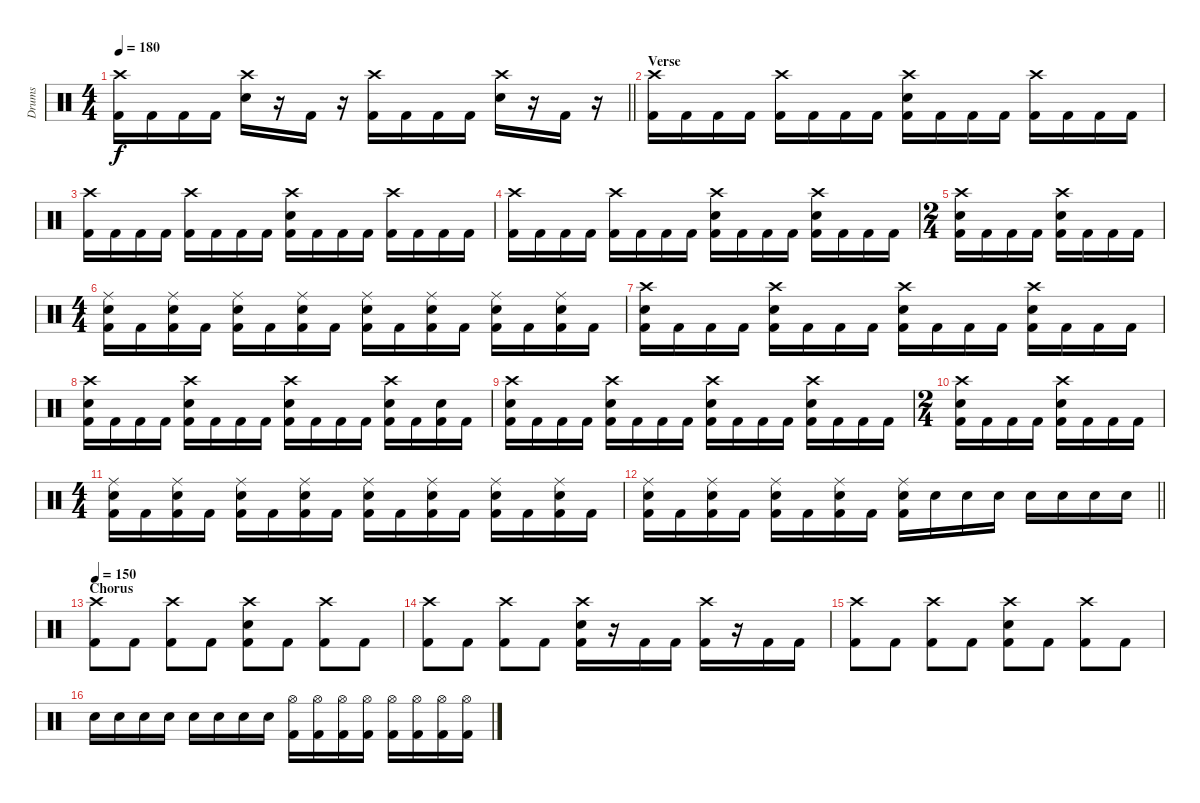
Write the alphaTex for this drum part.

\track ("Drums" "Drums") {instrument percussion}
\staff {score}
\articulation defaults
\ts (4 4)
\tempo 180
\clef neutral
\barLineRight lightlight
\ks c
("Crash high (hit)" "Kick (hit) 2").16{dy f} "Kick (hit) 2".16 "Kick (hit) 2".16 "Kick (hit) 2".16 ("Crash high (hit)" "Electric Snare (hit)").16 r.16 "Kick (hit) 2".16 r.16 ("Crash high (hit)" "Kick (hit) 2").16 "Kick (hit) 2".16 "Kick (hit) 2".16 "Kick (hit) 2".16 ("Crash high (hit)" "Electric Snare (hit)").16 r.16 "Kick (hit) 2".16 r.16 |
\section ("" "Verse")
("Crash high (hit)" "Kick (hit) 2").16 "Kick (hit) 2".16 "Kick (hit) 2".16 "Kick (hit) 2".16 ("Crash high (hit)" "Kick (hit) 2").16 "Kick (hit) 2".16 "Kick (hit) 2".16 "Kick (hit) 2".16 ("Crash high (hit)" "Electric Snare (hit)" "Kick (hit) 2").16 "Kick (hit) 2".16 "Kick (hit) 2".16 "Kick (hit) 2".16 ("Crash high (hit)" "Kick (hit) 2").16 "Kick (hit) 2".16 "Kick (hit) 2".16 "Kick (hit) 2".16 |
("Crash high (hit)" "Kick (hit) 2").16 "Kick (hit) 2".16 "Kick (hit) 2".16 "Kick (hit) 2".16 ("Crash high (hit)" "Kick (hit) 2").16 "Kick (hit) 2".16 "Kick (hit) 2".16 "Kick (hit) 2".16 ("Crash high (hit)" "Electric Snare (hit)" "Kick (hit) 2").16 "Kick (hit) 2".16 "Kick (hit) 2".16 "Kick (hit) 2".16 ("Crash high (hit)" "Kick (hit) 2").16 "Kick (hit) 2".16 "Kick (hit) 2".16 "Kick (hit) 2".16 |
("Crash high (hit)" "Kick (hit) 2").16 "Kick (hit) 2".16 "Kick (hit) 2".16 "Kick (hit) 2".16 ("Crash high (hit)" "Kick (hit) 2").16 "Kick (hit) 2".16 "Kick (hit) 2".16 "Kick (hit) 2".16 ("Crash high (hit)" "Electric Snare (hit)" "Kick (hit) 2").16 "Kick (hit) 2".16 "Kick (hit) 2".16 "Kick (hit) 2".16 ("Crash high (hit)" "Electric Snare (hit)" "Kick (hit) 2").16 "Kick (hit) 2".16 "Kick (hit) 2".16 "Kick (hit) 2".16 |
\ts (2 4)
("Crash high (hit)" "Electric Snare (hit)" "Kick (hit) 2").16 "Kick (hit) 2".16 "Kick (hit) 2".16 "Kick (hit) 2".16 ("Crash high (hit)" "Electric Snare (hit)" "Kick (hit) 2").16 "Kick (hit) 2".16 "Kick (hit) 2".16 "Kick (hit) 2".16 |
\ts (4 4)
("Ride (middle)" "Electric Snare (hit)" "Kick (hit) 2").16 "Kick (hit) 2".16 ("Ride (middle)" "Electric Snare (hit)" "Kick (hit) 2").16 "Kick (hit) 2".16 ("Ride (middle)" "Electric Snare (hit)" "Kick (hit) 2").16 "Kick (hit) 2".16 ("Ride (middle)" "Electric Snare (hit)" "Kick (hit) 2").16 "Kick (hit) 2".16 ("Ride (middle)" "Electric Snare (hit)" "Kick (hit) 2").16 "Kick (hit) 2".16 ("Ride (middle)" "Electric Snare (hit)" "Kick (hit) 2").16 "Kick (hit) 2".16 ("Ride (middle)" "Electric Snare (hit)" "Kick (hit) 2").16 "Kick (hit) 2".16 ("Ride (middle)" "Electric Snare (hit)" "Kick (hit) 2").16 "Kick (hit) 2".16 |
("Crash high (hit)" "Electric Snare (hit)" "Kick (hit) 2").16 "Kick (hit) 2".16 "Kick (hit) 2".16 "Kick (hit) 2".16 ("Crash high (hit)" "Electric Snare (hit)" "Kick (hit) 2").16 "Kick (hit) 2".16 "Kick (hit) 2".16 "Kick (hit) 2".16 ("Crash high (hit)" "Electric Snare (hit)" "Kick (hit) 2").16 "Kick (hit) 2".16 "Kick (hit) 2".16 "Kick (hit) 2".16 ("Crash high (hit)" "Electric Snare (hit)" "Kick (hit) 2").16 "Kick (hit) 2".16 "Kick (hit) 2".16 "Kick (hit) 2".16 |
("Crash high (hit)" "Electric Snare (hit)" "Kick (hit) 2").16 "Kick (hit) 2".16 "Kick (hit) 2".16 "Kick (hit) 2".16 ("Crash high (hit)" "Electric Snare (hit)" "Kick (hit) 2").16 "Kick (hit) 2".16 "Kick (hit) 2".16 "Kick (hit) 2".16 ("Crash high (hit)" "Electric Snare (hit)" "Kick (hit) 2").16 "Kick (hit) 2".16 "Kick (hit) 2".16 "Kick (hit) 2".16 ("Crash high (hit)" "Electric Snare (hit)" "Kick (hit) 2").16 "Kick (hit) 2".16 ("Electric Snare (hit)" "Kick (hit) 2").16 "Kick (hit) 2".16 |
("Crash high (hit)" "Electric Snare (hit)" "Kick (hit) 2").16 "Kick (hit) 2".16 "Kick (hit) 2".16 "Kick (hit) 2".16 ("Crash high (hit)" "Electric Snare (hit)" "Kick (hit) 2").16 "Kick (hit) 2".16 "Kick (hit) 2".16 "Kick (hit) 2".16 ("Crash high (hit)" "Electric Snare (hit)" "Kick (hit) 2").16 "Kick (hit) 2".16 "Kick (hit) 2".16 "Kick (hit) 2".16 ("Crash high (hit)" "Electric Snare (hit)" "Kick (hit) 2").16 "Kick (hit) 2".16 "Kick (hit) 2".16 "Kick (hit) 2".16 |
\ts (2 4)
("Crash high (hit)" "Electric Snare (hit)" "Kick (hit) 2").16 "Kick (hit) 2".16 "Kick (hit) 2".16 "Kick (hit) 2".16 ("Crash high (hit)" "Electric Snare (hit)" "Kick (hit) 2").16 "Kick (hit) 2".16 "Kick (hit) 2".16 "Kick (hit) 2".16 |
\ts (4 4)
("Ride (middle)" "Electric Snare (hit)" "Kick (hit) 2").16 "Kick (hit) 2".16 ("Ride (middle)" "Electric Snare (hit)" "Kick (hit) 2").16 "Kick (hit) 2".16 ("Ride (middle)" "Electric Snare (hit)" "Kick (hit) 2").16 "Kick (hit) 2".16 ("Ride (middle)" "Electric Snare (hit)" "Kick (hit) 2").16 "Kick (hit) 2".16 ("Ride (middle)" "Electric Snare (hit)" "Kick (hit) 2").16 "Kick (hit) 2".16 ("Ride (middle)" "Electric Snare (hit)" "Kick (hit) 2").16 "Kick (hit) 2".16 ("Ride (middle)" "Electric Snare (hit)" "Kick (hit) 2").16 "Kick (hit) 2".16 ("Ride (middle)" "Electric Snare (hit)" "Kick (hit) 2").16 "Kick (hit) 2".16 |
\barLineRight lightlight
("Ride (middle)" "Electric Snare (hit)" "Kick (hit) 2").16 "Kick (hit) 2".16 ("Ride (middle)" "Electric Snare (hit)" "Kick (hit) 2").16 "Kick (hit) 2".16 ("Ride (middle)" "Electric Snare (hit)" "Kick (hit) 2").16 "Kick (hit) 2".16 ("Ride (middle)" "Electric Snare (hit)" "Kick (hit) 2").16 "Kick (hit) 2".16 ("Ride (middle)" "Electric Snare (hit)" "Kick (hit) 2").16 "Electric Snare (hit)".16 "Electric Snare (hit)".16 "Electric Snare (hit)".16 "Electric Snare (hit)".16 "Electric Snare (hit)".16 "Electric Snare (hit)".16 "Electric Snare (hit)".16 |
\section ("" "Chorus")
\tempo 150
("Crash high (hit)" "Kick (hit) 2").8 "Kick (hit) 2".8 ("Crash high (hit)" "Kick (hit) 2").8 "Kick (hit) 2".8 ("Crash high (hit)" "Electric Snare (hit)" "Kick (hit) 2").8 "Kick (hit) 2".8 ("Crash high (hit)" "Kick (hit) 2").8 "Kick (hit) 2".8 |
("Crash high (hit)" "Kick (hit) 2").8 "Kick (hit) 2".8 ("Crash high (hit)" "Kick (hit) 2").8 "Kick (hit) 2".8 ("Crash high (hit)" "Electric Snare (hit)" "Kick (hit) 2").16 r.16 "Kick (hit) 2".16 "Kick (hit) 2".16 ("Crash high (hit)" "Kick (hit) 2").16 r.16 "Kick (hit) 2".16 "Kick (hit) 2".16 |
("Crash high (hit)" "Kick (hit) 2").8 "Kick (hit) 2".8 ("Crash high (hit)" "Kick (hit) 2").8 "Kick (hit) 2".8 ("Crash high (hit)" "Electric Snare (hit)" "Kick (hit) 2").8 "Kick (hit) 2".8 ("Crash high (hit)" "Kick (hit) 2").8 "Kick (hit) 2".8 |
"Electric Snare (hit)".16 "Electric Snare (hit)".16 "Electric Snare (hit)".16 "Electric Snare (hit)".16 "Electric Snare (hit)".16 "Electric Snare (hit)".16 "Electric Snare (hit)".16 "Electric Snare (hit)".16 ("Hi-Hat (open)" "Kick (hit) 2").16 ("Hi-Hat (open)" "Kick (hit) 2").16 ("Hi-Hat (open)" "Kick (hit) 2").16 ("Hi-Hat (open)" "Kick (hit) 2").16 ("Hi-Hat (open)" "Kick (hit) 2").16 ("Hi-Hat (open)" "Kick (hit) 2").16 ("Hi-Hat (open)" "Kick (hit) 2").16 ("Hi-Hat (open)" "Kick (hit) 2").16
